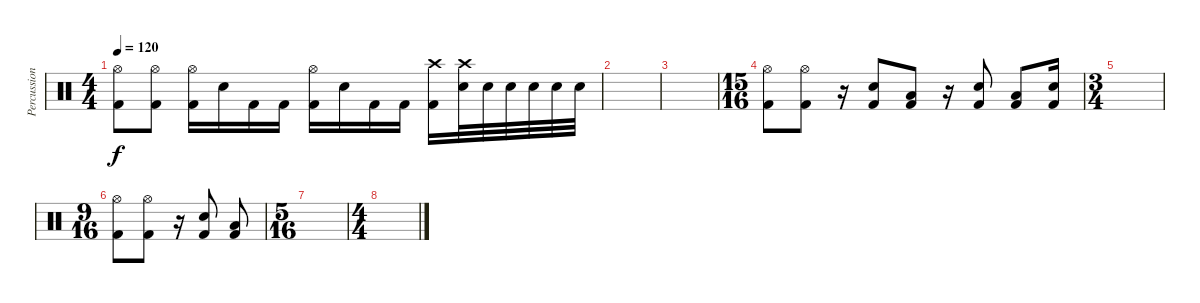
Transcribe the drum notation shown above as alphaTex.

\track ("Percussion" "Percussion") {instrument percussion}
\staff {score}
\articulation defaults
\ts (4 4)
\tempo 120
\clef neutral
\ks c
("Hi-Hat (open)" "Kick (hit) 2").8{dy f} ("Hi-Hat (open)" "Kick (hit) 2").8 ("Hi-Hat (open)" "Kick (hit) 2").16 "Electric Snare (hit)".16 "Kick (hit) 2".16 "Kick (hit) 2".16 ("Hi-Hat (open)" "Kick (hit) 2").16 "Electric Snare (hit)".16 "Kick (hit) 2".16 "Kick (hit) 2".16 ("Crash high (hit)" "Kick (hit) 2").16 ("Crash high (hit)" "Electric Snare (hit)").32 "Electric Snare (hit)".32 "Electric Snare (hit)".32 "Electric Snare (hit)".32 "Electric Snare (hit)".32 "Electric Snare (hit)".32 |
|
|
\ts (15 16)
("Hi-Hat (open)" "Kick (hit) 2").8 ("Hi-Hat (open)" "Kick (hit) 2").8 r.16 ("Electric Snare (hit)" "Kick (hit) 2").8 ("Low Floor Tom (hit)" "Kick (hit) 2").8 r.16 ("Electric Snare (hit)" "Kick (hit) 2").8 ("Low Floor Tom (hit)" "Kick (hit) 2").8 ("Electric Snare (hit)" "Kick (hit) 2").16 |
\ts (3 4)
|
\ts (9 16)
("Hi-Hat (open)" "Kick (hit) 2").8 ("Hi-Hat (open)" "Kick (hit) 2").8 r.16 ("Electric Snare (hit)" "Kick (hit) 2").8 ("Low Floor Tom (hit)" "Kick (hit) 2").8 |
\ts (5 16)
|
\ts (4 4)
